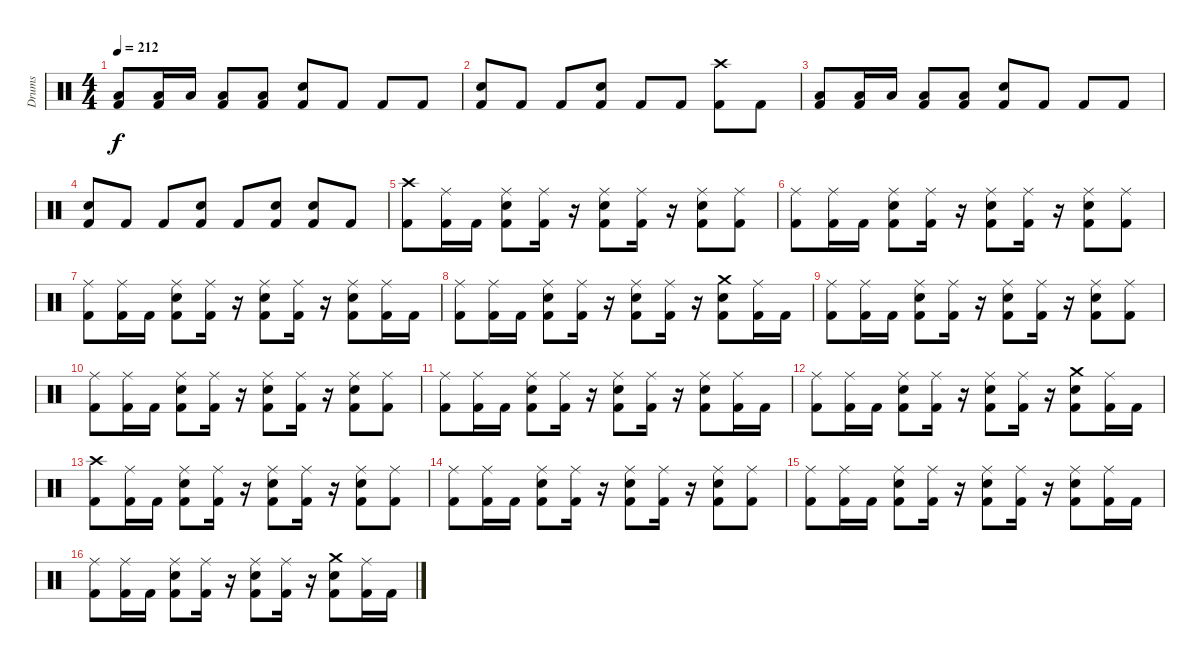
\track ("Drums" "Drums") {instrument percussion}
\staff {score}
\articulation defaults
\ts (4 4)
\tempo 212
\clef neutral
\ks c
("Kick (hit) 2" "Low Tom (hit)").8{dy f} ("Kick (hit) 2" "Low Tom (hit)").16 "Low Tom (hit)".16 ("Kick (hit) 2" "Low Tom (hit)").8 ("Kick (hit) 2" "Low Tom (hit)").8 ("Kick (hit) 2" "Snare (hit) 2").8 "Kick (hit) 2".8 "Kick (hit) 2".8 "Kick (hit) 2".8 |
("Kick (hit) 2" "Snare (hit) 2").8 "Kick (hit) 2".8 "Kick (hit) 2".8 ("Kick (hit) 2" "Snare (hit) 2").8 "Kick (hit) 2".8 "Kick (hit) 2".8 ("Kick (hit) 2" "Crash high (hit)").8 "Kick (hit) 2".8 |
("Kick (hit) 2" "Low Tom (hit)").8 ("Kick (hit) 2" "Low Tom (hit)").16 "Low Tom (hit)".16 ("Kick (hit) 2" "Low Tom (hit)").8 ("Kick (hit) 2" "Low Tom (hit)").8 ("Kick (hit) 2" "Snare (hit) 2").8 "Kick (hit) 2".8 "Kick (hit) 2".8 "Kick (hit) 2".8 |
("Kick (hit) 2" "Snare (hit) 2").8 "Kick (hit) 2".8 "Kick (hit) 2".8 ("Kick (hit) 2" "Snare (hit) 2").8 "Kick (hit) 2".8 ("Kick (hit) 2" "Snare (hit) 2").8 ("Kick (hit) 2" "Snare (hit) 2").8 "Kick (hit) 2".8 |
("Kick (hit) 2" "Crash high (hit)").8 ("Kick (hit) 2" "Ride (middle)").16 "Kick (hit) 2".16 ("Kick (hit) 2" "Snare (hit) 2" "Ride (middle)").8 ("Kick (hit) 2" "Ride (middle)").16 r.16 ("Kick (hit) 2" "Snare (hit) 2" "Ride (middle)").8 ("Kick (hit) 2" "Ride (middle)").16 r.16 ("Kick (hit) 2" "Snare (hit) 2" "Ride (middle)").8 ("Kick (hit) 2" "Ride (middle)").8 |
("Kick (hit) 2" "Ride (middle)").8 ("Kick (hit) 2" "Ride (middle)").16 "Kick (hit) 2".16 ("Kick (hit) 2" "Snare (hit) 2" "Ride (middle)").8 ("Kick (hit) 2" "Ride (middle)").16 r.16 ("Kick (hit) 2" "Snare (hit) 2" "Ride (middle)").8 ("Kick (hit) 2" "Ride (middle)").16 r.16 ("Kick (hit) 2" "Snare (hit) 2" "Ride (middle)").8 ("Kick (hit) 2" "Ride (middle)").8 |
("Kick (hit) 2" "Ride (middle)").8 ("Kick (hit) 2" "Ride (middle)").16 "Kick (hit) 2".16 ("Kick (hit) 2" "Snare (hit) 2" "Ride (middle)").8 ("Kick (hit) 2" "Ride (middle)").16 r.16 ("Kick (hit) 2" "Snare (hit) 2" "Ride (middle)").8 ("Kick (hit) 2" "Ride (middle)").16 r.16 ("Kick (hit) 2" "Snare (hit) 2" "Ride (middle)").8 ("Kick (hit) 2" "Ride (middle)").16 "Kick (hit) 2".16 |
("Kick (hit) 2" "Ride (middle)").8 ("Kick (hit) 2" "Ride (middle)").16 "Kick (hit) 2".16 ("Kick (hit) 2" "Snare (hit) 2" "Ride (middle)").8 ("Kick (hit) 2" "Ride (middle)").16 r.16 ("Kick (hit) 2" "Snare (hit) 2" "Ride (middle)").8 ("Kick (hit) 2" "Ride (middle)").16 r.16 ("Kick (hit) 2" "Snare (hit) 2" "Crash medium (hit)").8 ("Kick (hit) 2" "Ride (middle)").16 "Kick (hit) 2".16 |
("Kick (hit) 2" "Ride (middle)").8 ("Kick (hit) 2" "Ride (middle)").16 "Kick (hit) 2".16 ("Kick (hit) 2" "Snare (hit) 2" "Ride (middle)").8 ("Kick (hit) 2" "Ride (middle)").16 r.16 ("Kick (hit) 2" "Snare (hit) 2" "Ride (middle)").8 ("Kick (hit) 2" "Ride (middle)").16 r.16 ("Kick (hit) 2" "Snare (hit) 2" "Ride (middle)").8 ("Kick (hit) 2" "Ride (middle)").8 |
("Kick (hit) 2" "Ride (middle)").8 ("Kick (hit) 2" "Ride (middle)").16 "Kick (hit) 2".16 ("Kick (hit) 2" "Snare (hit) 2" "Ride (middle)").8 ("Kick (hit) 2" "Ride (middle)").16 r.16 ("Kick (hit) 2" "Snare (hit) 2" "Ride (middle)").8 ("Kick (hit) 2" "Ride (middle)").16 r.16 ("Kick (hit) 2" "Snare (hit) 2" "Ride (middle)").8 ("Kick (hit) 2" "Ride (middle)").8 |
("Kick (hit) 2" "Ride (middle)").8 ("Kick (hit) 2" "Ride (middle)").16 "Kick (hit) 2".16 ("Kick (hit) 2" "Snare (hit) 2" "Ride (middle)").8 ("Kick (hit) 2" "Ride (middle)").16 r.16 ("Kick (hit) 2" "Snare (hit) 2" "Ride (middle)").8 ("Kick (hit) 2" "Ride (middle)").16 r.16 ("Kick (hit) 2" "Snare (hit) 2" "Ride (middle)").8 ("Kick (hit) 2" "Ride (middle)").16 "Kick (hit) 2".16 |
("Kick (hit) 2" "Ride (middle)").8 ("Kick (hit) 2" "Ride (middle)").16 "Kick (hit) 2".16 ("Kick (hit) 2" "Snare (hit) 2" "Ride (middle)").8 ("Kick (hit) 2" "Ride (middle)").16 r.16 ("Kick (hit) 2" "Snare (hit) 2" "Ride (middle)").8 ("Kick (hit) 2" "Ride (middle)").16 r.16 ("Kick (hit) 2" "Snare (hit) 2" "Crash medium (hit)").8 ("Kick (hit) 2" "Ride (middle)").16 "Kick (hit) 2".16 |
("Kick (hit) 2" "Crash high (hit)").8 ("Kick (hit) 2" "Ride (middle)").16 "Kick (hit) 2".16 ("Kick (hit) 2" "Snare (hit) 2" "Ride (middle)").8 ("Kick (hit) 2" "Ride (middle)").16 r.16 ("Kick (hit) 2" "Snare (hit) 2" "Ride (middle)").8 ("Kick (hit) 2" "Ride (middle)").16 r.16 ("Kick (hit) 2" "Snare (hit) 2" "Ride (middle)").8 ("Kick (hit) 2" "Ride (middle)").8 |
("Kick (hit) 2" "Ride (middle)").8 ("Kick (hit) 2" "Ride (middle)").16 "Kick (hit) 2".16 ("Kick (hit) 2" "Snare (hit) 2" "Ride (middle)").8 ("Kick (hit) 2" "Ride (middle)").16 r.16 ("Kick (hit) 2" "Snare (hit) 2" "Ride (middle)").8 ("Kick (hit) 2" "Ride (middle)").16 r.16 ("Kick (hit) 2" "Snare (hit) 2" "Ride (middle)").8 ("Kick (hit) 2" "Ride (middle)").8 |
("Kick (hit) 2" "Ride (middle)").8 ("Kick (hit) 2" "Ride (middle)").16 "Kick (hit) 2".16 ("Kick (hit) 2" "Snare (hit) 2" "Ride (middle)").8 ("Kick (hit) 2" "Ride (middle)").16 r.16 ("Kick (hit) 2" "Snare (hit) 2" "Ride (middle)").8 ("Kick (hit) 2" "Ride (middle)").16 r.16 ("Kick (hit) 2" "Snare (hit) 2" "Ride (middle)").8 ("Kick (hit) 2" "Ride (middle)").16 "Kick (hit) 2".16 |
("Kick (hit) 2" "Ride (middle)").8 ("Kick (hit) 2" "Ride (middle)").16 "Kick (hit) 2".16 ("Kick (hit) 2" "Snare (hit) 2" "Ride (middle)").8 ("Kick (hit) 2" "Ride (middle)").16 r.16 ("Kick (hit) 2" "Snare (hit) 2" "Ride (middle)").8 ("Kick (hit) 2" "Ride (middle)").16 r.16 ("Kick (hit) 2" "Snare (hit) 2" "Crash medium (hit)").8 ("Kick (hit) 2" "Ride (middle)").16 "Kick (hit) 2".16
